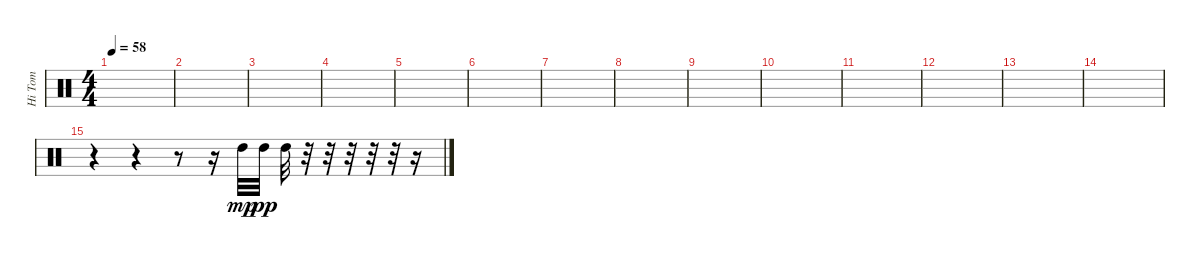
\track ("Hi Tom" "Hi Tom") {instrument percussion}
\staff {score}
\articulation defaults
\ts (4 4)
\tempo 58
\clef neutral
\ks c
|
|
|
|
|
|
|
|
|
|
|
|
|
|
r.4 r.4 r.8 r.16 "High Tom (hit)".32{dy mp} "High Tom (hit)".32{dy pp} "High Tom (hit)".32 r.32 r.32 r.32 r.32 r.32 r.16
